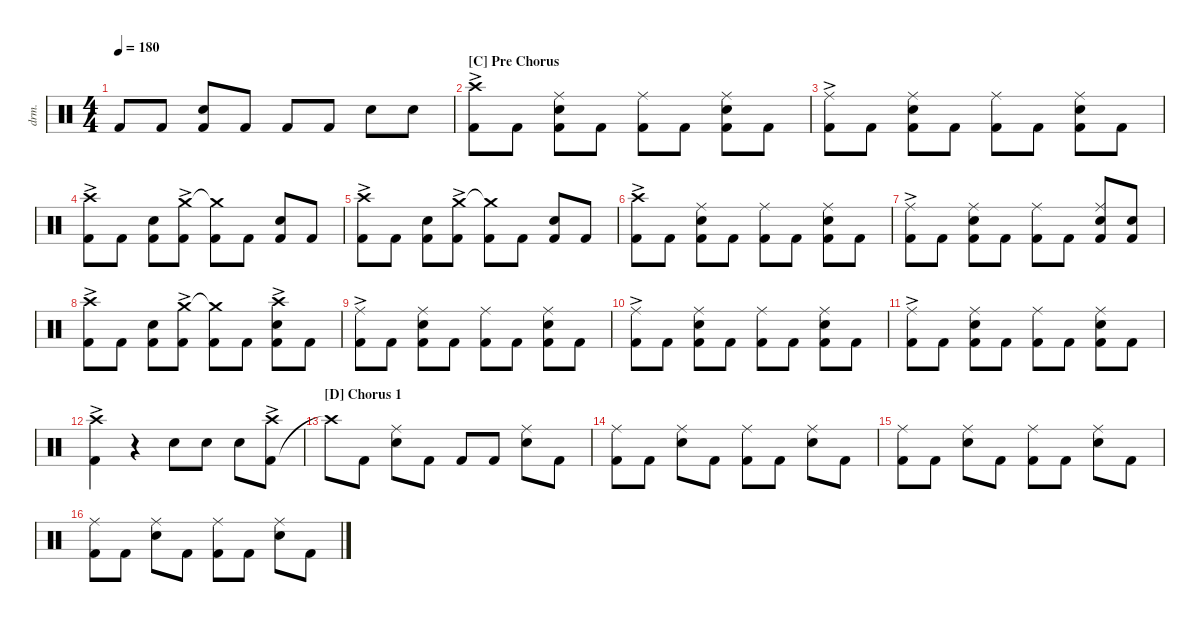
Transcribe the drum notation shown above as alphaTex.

\defaultSystemsLayout 4
\hideDynamics
\bracketExtendMode nobrackets
\otherSystemsTrackNameOrientation horizontal
\track ("Drum" "drm.") {instrument percussion}
\staff {score}
\articulation defaults
\ts (4 4)
\tempo 180
\clef neutral
\ks c "Kick (hit) 2".8{dy f beam Up} "Kick (hit) 2".8{beam Up}
("Kick (hit) 2" "Snare (hit) 2").8{beam Up} "Kick (hit) 2".8{beam Up} "Kick (hit) 2".8{beam Up} "Kick (hit) 2".8{beam Up} "Snare (hit) 2".8{beam Down} "Snare (hit) 2".8{beam Down} |
\section ("C" "Pre Chorus")
("Kick (hit) 2"{ac} "Crash high (hit)"{ac}).8{beam Down} "Kick (hit) 2".8{beam Down} ("Kick (hit) 2" "Snare (hit) 2" "Ride (middle)").8{beam Down} "Kick (hit) 2".8{beam Down} ("Kick (hit) 2" "Ride (middle)").8{beam Down} "Kick (hit) 2".8{beam Down} ("Kick (hit) 2" "Snare (hit) 2" "Ride (middle)").8{beam Down} "Kick (hit) 2".8{beam Down} |
("Kick (hit) 2"{ac} "Ride (middle)").8{beam Down} "Kick (hit) 2".8{beam Down} ("Kick (hit) 2" "Snare (hit) 2" "Ride (middle)").8{beam Down} "Kick (hit) 2".8{beam Down} ("Kick (hit) 2" "Ride (middle)").8{beam Down} "Kick (hit) 2".8{beam Down} ("Kick (hit) 2" "Snare (hit) 2" "Ride (middle)").8{beam Down} "Kick (hit) 2".8{beam Down} |
("Kick (hit) 2"{ac} "Crash high (hit)"{ac}).8{beam Down} "Kick (hit) 2".8{beam Down} ("Kick (hit) 2" "Snare (hit) 2").8{beam Down} ("Kick (hit) 2"{ac} "Crash medium (hit)"{ac}).8{beam Down} ("Kick (hit) 2" "Crash medium (hit)"{t}).8{beam Down} "Kick (hit) 2".8{beam Down} ("Kick (hit) 2" "Snare (hit) 2").8{beam Up} "Kick (hit) 2".8{beam Up} |
("Kick (hit) 2"{ac} "Crash high (hit)"{ac}).8{beam Down} "Kick (hit) 2".8{beam Down} ("Kick (hit) 2" "Snare (hit) 2").8{beam Down} ("Kick (hit) 2"{ac} "Crash medium (hit)"{ac}).8{beam Down} ("Kick (hit) 2" "Crash medium (hit)"{t}).8{beam Down} "Kick (hit) 2".8{beam Down} ("Kick (hit) 2" "Snare (hit) 2").8{beam Up} "Kick (hit) 2".8{beam Up} |
("Kick (hit) 2"{ac} "Crash high (hit)"{ac}).8{beam Down} "Kick (hit) 2".8{beam Down} ("Kick (hit) 2" "Snare (hit) 2" "Ride (middle)").8{beam Down} "Kick (hit) 2".8{beam Down} ("Kick (hit) 2" "Ride (middle)").8{beam Down} "Kick (hit) 2".8{beam Down} ("Kick (hit) 2" "Snare (hit) 2" "Ride (middle)").8{beam Down} "Kick (hit) 2".8{beam Down} |
("Kick (hit) 2"{ac} "Ride (middle)").8{beam Down} "Kick (hit) 2".8{beam Down} ("Kick (hit) 2" "Snare (hit) 2" "Ride (middle)").8{beam Down} "Kick (hit) 2".8{beam Down} ("Kick (hit) 2" "Ride (middle)").8{beam Down} "Kick (hit) 2".8{beam Down} ("Kick (hit) 2" "Snare (hit) 2" "Ride (middle)").8{beam Up} ("Kick (hit) 2" "Snare (hit) 2").8{beam Up} |
("Kick (hit) 2"{ac} "Crash high (hit)"{ac}).8{beam Down} "Kick (hit) 2".8{beam Down} ("Kick (hit) 2" "Snare (hit) 2").8{beam Down} ("Kick (hit) 2"{ac} "Crash medium (hit)"{ac}).8{beam Down} ("Kick (hit) 2" "Crash medium (hit)"{t}).8{beam Down} "Kick (hit) 2".8{beam Down} ("Kick (hit) 2"{ac} "Snare (hit) 2"{ac} "Crash high (hit)"{ac}).8{beam Down} "Kick (hit) 2".8{beam Down} |
("Kick (hit) 2"{ac} "Ride (middle)").8{beam Down} "Kick (hit) 2".8{beam Down} ("Kick (hit) 2" "Snare (hit) 2" "Ride (middle)").8{beam Down} "Kick (hit) 2".8{beam Down} ("Kick (hit) 2" "Ride (middle)").8{beam Down} "Kick (hit) 2".8{beam Down} ("Kick (hit) 2" "Snare (hit) 2" "Ride (middle)").8{beam Down} "Kick (hit) 2".8{beam Down} |
("Kick (hit) 2"{ac} "Ride (middle)").8{beam Down} "Kick (hit) 2".8{beam Down} ("Kick (hit) 2" "Snare (hit) 2" "Ride (middle)").8{beam Down} "Kick (hit) 2".8{beam Down} ("Kick (hit) 2" "Ride (middle)").8{beam Down} "Kick (hit) 2".8{beam Down} ("Kick (hit) 2" "Snare (hit) 2" "Ride (middle)").8{beam Down} "Kick (hit) 2".8{beam Down} |
("Kick (hit) 2"{ac} "Ride (middle)").8{beam Down} "Kick (hit) 2".8{beam Down} ("Kick (hit) 2" "Snare (hit) 2" "Ride (middle)").8{beam Down} "Kick (hit) 2".8{beam Down} ("Kick (hit) 2" "Ride (middle)").8{beam Down} "Kick (hit) 2".8{beam Down} ("Kick (hit) 2" "Snare (hit) 2" "Ride (middle)").8{beam Down} "Kick (hit) 2".8{beam Down} |
("Kick (hit) 2"{ac} "Crash high (hit)"{ac}).4{beam Down} r.4{beam Down} "Snare (hit) 2".8{beam Down} "Snare (hit) 2".8{beam Down} "Snare (hit) 2".8{beam Down} ("Kick (hit) 2"{ac} "Crash high (hit)"{ac}).8{beam Down} |
\section ("D" "Chorus 1")
"Crash high (hit)"{t}.8{beam Down} "Kick (hit) 2".8{beam Down} ("Snare (hit) 2" "Ride (middle)").8{beam Down} "Kick (hit) 2".8{beam Down} "Kick (hit) 2".8{beam Up} "Kick (hit) 2".8{beam Up} ("Snare (hit) 2" "Ride (middle)").8{beam Down} "Kick (hit) 2".8{beam Down} |
("Ride (middle)" "Kick (hit) 2").8{beam Down} "Kick (hit) 2".8{beam Down} ("Snare (hit) 2" "Ride (middle)").8{beam Down} "Kick (hit) 2".8{beam Down} ("Kick (hit) 2" "Ride (middle)").8{beam Down} "Kick (hit) 2".8{beam Down} ("Snare (hit) 2" "Ride (middle)").8{beam Down} "Kick (hit) 2".8{beam Down} |
("Ride (middle)" "Kick (hit) 2").8{beam Down} "Kick (hit) 2".8{beam Down} ("Snare (hit) 2" "Ride (middle)").8{beam Down} "Kick (hit) 2".8{beam Down} ("Kick (hit) 2" "Ride (middle)").8{beam Down} "Kick (hit) 2".8{beam Down} ("Snare (hit) 2" "Ride (middle)").8{beam Down} "Kick (hit) 2".8{beam Down} |
("Ride (middle)" "Kick (hit) 2").8{beam Down} "Kick (hit) 2".8{beam Down} ("Snare (hit) 2" "Ride (middle)").8{beam Down} "Kick (hit) 2".8{beam Down} ("Kick (hit) 2" "Ride (middle)").8{beam Down} "Kick (hit) 2".8{beam Down} ("Snare (hit) 2" "Ride (middle)").8{beam Down} "Kick (hit) 2".8{beam Down}
